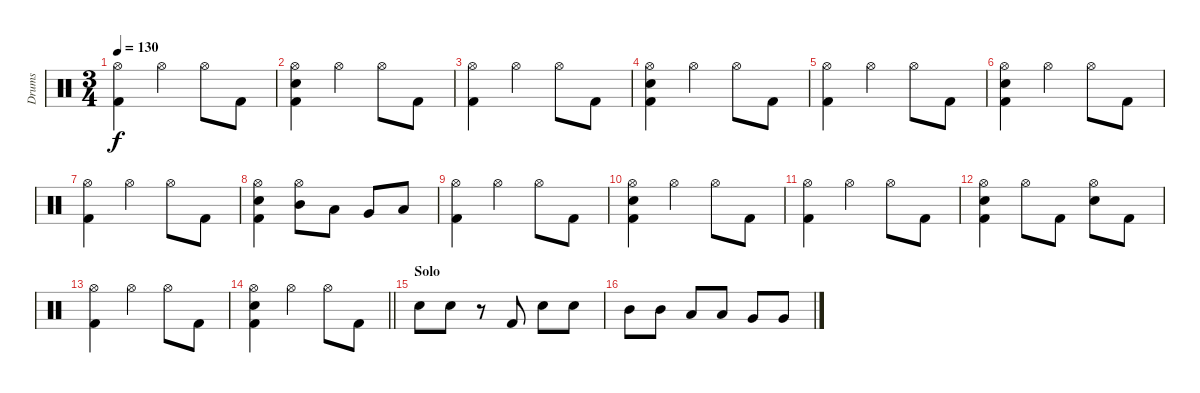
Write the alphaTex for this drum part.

\track ("Drums" "Drums") {instrument percussion}
\staff {score}
\articulation defaults
\ts (3 4)
\tempo 130
\clef neutral
\ks c
("Hi-Hat (open)" "Kick (hit) 2").4{dy f} "Hi-Hat (open)".4 "Hi-Hat (open)".8 "Kick (hit) 2".8 |
("Hi-Hat (open)" "Electric Snare (hit)" "Kick (hit) 2").4 "Hi-Hat (open)".4 "Hi-Hat (open)".8 "Kick (hit) 2".8 |
("Hi-Hat (open)" "Kick (hit) 2").4 "Hi-Hat (open)".4 "Hi-Hat (open)".8 "Kick (hit) 2".8 |
("Hi-Hat (open)" "Electric Snare (hit)" "Kick (hit) 2").4 "Hi-Hat (open)".4 "Hi-Hat (open)".8 "Kick (hit) 2".8 |
("Hi-Hat (open)" "Kick (hit) 2").4 "Hi-Hat (open)".4 "Hi-Hat (open)".8 "Kick (hit) 2".8 |
("Hi-Hat (open)" "Electric Snare (hit)" "Kick (hit) 2").4 "Hi-Hat (open)".4 "Hi-Hat (open)".8 "Kick (hit) 2".8 |
("Hi-Hat (open)" "Kick (hit) 2").4 "Hi-Hat (open)".4 "Hi-Hat (open)".8 "Kick (hit) 2".8 |
("Hi-Hat (open)" "Electric Snare (hit)" "Kick (hit) 2").4 ("Hi-Hat (open)" "Mid Tom (hit)").8 "Low Tom (hit)".8 "Very Low Tom (hit)".8 "Low Floor Tom (hit)".8 |
("Hi-Hat (open)" "Kick (hit) 2").4 "Hi-Hat (open)".4 "Hi-Hat (open)".8 "Kick (hit) 2".8 |
("Hi-Hat (open)" "Electric Snare (hit)" "Kick (hit) 2").4 "Hi-Hat (open)".4 "Hi-Hat (open)".8 "Kick (hit) 2".8 |
("Hi-Hat (open)" "Kick (hit) 2").4 "Hi-Hat (open)".4 "Hi-Hat (open)".8 "Kick (hit) 2".8 |
("Hi-Hat (open)" "Electric Snare (hit)" "Kick (hit) 2").4 "Hi-Hat (open)".8 "Kick (hit) 2".8 ("Hi-Hat (open)" "Electric Snare (hit)").8 "Kick (hit) 2".8 |
("Hi-Hat (open)" "Kick (hit) 2").4 "Hi-Hat (open)".4 "Hi-Hat (open)".8 "Kick (hit) 2".8 |
\barLineRight lightlight
("Hi-Hat (open)" "Electric Snare (hit)" "Kick (hit) 2").4 "Hi-Hat (open)".4 "Hi-Hat (open)".8 "Kick (hit) 2".8 |
\section ("" "Solo")
"Electric Snare (hit)".8 "Electric Snare (hit)".8 r.8 "Kick (hit) 2".8 "Electric Snare (hit)".8 "Electric Snare (hit)".8 |
"Mid Tom (hit)".8 "Mid Tom (hit)".8 "Low Tom (hit)".8 "Low Tom (hit)".8 "Very Low Tom (hit)".8 "Very Low Tom (hit)".8
